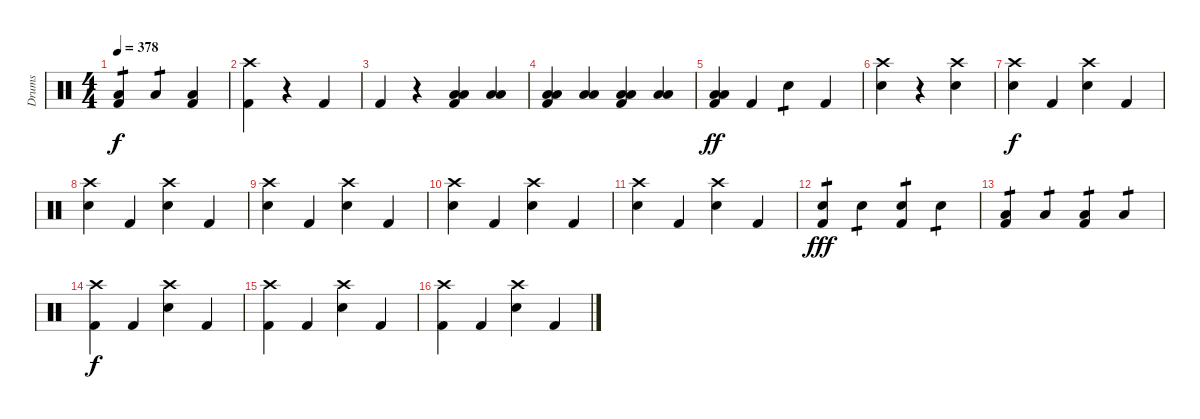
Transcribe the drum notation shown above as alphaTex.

\track ("Drums" "Drums") {instrument percussion}
\staff {score}
\articulation defaults
\ts (4 4)
\tempo 378
\clef neutral
\ks c
("Low Tom (hit)" "Kick (hit) 2").4{tp 1 dy f} "Low Tom (hit)".4{tp 1} ("Low Floor Tom (hit)" "Kick (hit) 2").4 |
("Crash high (hit)" "Kick (hit) 2").4 r.4 "Kick (hit) 2".4 |
"Kick (hit) 2".4 r.4 ("Low Tom (hit)" "Low Floor Tom (hit)" "Kick (hit) 2").4 ("Low Tom (hit)" "Low Floor Tom (hit)").4 |
("Low Tom (hit)" "Low Floor Tom (hit)" "Kick (hit) 2").4 ("Low Tom (hit)" "Low Floor Tom (hit)").4 ("Low Tom (hit)" "Low Floor Tom (hit)" "Kick (hit) 2").4 ("Low Tom (hit)" "Low Floor Tom (hit)").4 |
("Low Tom (hit)" "Low Floor Tom (hit)" "Kick (hit) 2").4{dy ff} "Kick (hit) 2".4 "Electric Snare (hit)".4{tp 1} "Kick (hit) 2".4 |
("Crash high (hit)" "Electric Snare (hit)").4 r.4 ("Crash high (hit)" "Electric Snare (hit)").4 |
("Crash high (hit)" "Electric Snare (hit)").4{dy f} "Kick (hit) 2".4 ("Crash high (hit)" "Electric Snare (hit)").4 "Kick (hit) 2".4 |
("Crash high (hit)" "Electric Snare (hit)").4 "Kick (hit) 2".4 ("Crash high (hit)" "Electric Snare (hit)").4 "Kick (hit) 2".4 |
("Crash high (hit)" "Electric Snare (hit)").4 "Kick (hit) 2".4 ("Crash high (hit)" "Electric Snare (hit)").4 "Kick (hit) 2".4 |
("Crash high (hit)" "Electric Snare (hit)").4 "Kick (hit) 2".4 ("Crash high (hit)" "Electric Snare (hit)").4 "Kick (hit) 2".4 |
("Crash high (hit)" "Electric Snare (hit)").4 "Kick (hit) 2".4 ("Crash high (hit)" "Electric Snare (hit)").4 "Kick (hit) 2".4 |
("Electric Snare (hit)" "Kick (hit) 2").4{tp 1 dy fff} "Electric Snare (hit)".4{tp 1} ("Electric Snare (hit)" "Kick (hit) 2").4{tp 1} "Electric Snare (hit)".4{tp 1} |
("Low Floor Tom (hit)" "Kick (hit) 2").4{tp 1} "Low Floor Tom (hit)".4{tp 1} ("Low Floor Tom (hit)" "Kick (hit) 2").4{tp 1} "Low Floor Tom (hit)".4{tp 1} |
("Crash high (hit)" "Kick (hit) 2").4{dy f} "Kick (hit) 2".4 ("Crash high (hit)" "Electric Snare (hit)").4 "Kick (hit) 2".4 |
("Crash high (hit)" "Kick (hit) 2").4 "Kick (hit) 2".4 ("Crash high (hit)" "Electric Snare (hit)").4 "Kick (hit) 2".4 |
("Crash high (hit)" "Kick (hit) 2").4 "Kick (hit) 2".4 ("Crash high (hit)" "Electric Snare (hit)").4 "Kick (hit) 2".4
